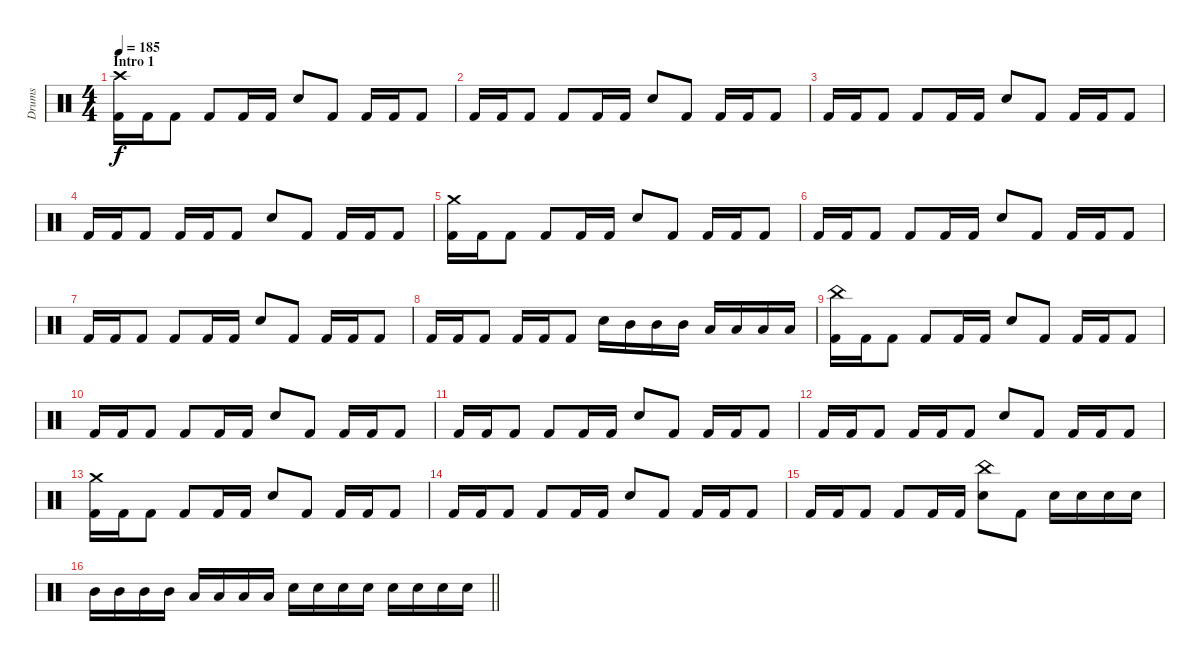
\track ("Drums" "Drums") {instrument percussion}
\staff {score}
\articulation defaults
\ts (4 4)
\section ("" "Intro 1")
\tempo 185
\clef neutral
\ks c
("Crash high (hit)" "Kick (hit) 2").16{dy f} "Kick (hit) 2".16 "Kick (hit) 2".8 "Kick (hit) 2".8 "Kick (hit) 2".16 "Kick (hit) 2".16 "Electric Snare (hit)".8 "Kick (hit) 2".8 "Kick (hit) 2".16 "Kick (hit) 2".16 "Kick (hit) 2".8 |
"Kick (hit) 2".16 "Kick (hit) 2".16 "Kick (hit) 2".8 "Kick (hit) 2".8 "Kick (hit) 2".16 "Kick (hit) 2".16 "Electric Snare (hit)".8 "Kick (hit) 2".8 "Kick (hit) 2".16 "Kick (hit) 2".16 "Kick (hit) 2".8 |
"Kick (hit) 2".16 "Kick (hit) 2".16 "Kick (hit) 2".8 "Kick (hit) 2".8 "Kick (hit) 2".16 "Kick (hit) 2".16 "Electric Snare (hit)".8 "Kick (hit) 2".8 "Kick (hit) 2".16 "Kick (hit) 2".16 "Kick (hit) 2".8 |
"Kick (hit) 2".16 "Kick (hit) 2".16 "Kick (hit) 2".8 "Kick (hit) 2".16 "Kick (hit) 2".16 "Kick (hit) 2".8 "Electric Snare (hit)".8 "Kick (hit) 2".8 "Kick (hit) 2".16 "Kick (hit) 2".16 "Kick (hit) 2".8 |
("Crash medium (hit)" "Kick (hit) 2").16 "Kick (hit) 2".16 "Kick (hit) 2".8 "Kick (hit) 2".8 "Kick (hit) 2".16 "Kick (hit) 2".16 "Electric Snare (hit)".8 "Kick (hit) 2".8 "Kick (hit) 2".16 "Kick (hit) 2".16 "Kick (hit) 2".8 |
"Kick (hit) 2".16 "Kick (hit) 2".16 "Kick (hit) 2".8 "Kick (hit) 2".8 "Kick (hit) 2".16 "Kick (hit) 2".16 "Electric Snare (hit)".8 "Kick (hit) 2".8 "Kick (hit) 2".16 "Kick (hit) 2".16 "Kick (hit) 2".8 |
"Kick (hit) 2".16 "Kick (hit) 2".16 "Kick (hit) 2".8 "Kick (hit) 2".8 "Kick (hit) 2".16 "Kick (hit) 2".16 "Electric Snare (hit)".8 "Kick (hit) 2".8 "Kick (hit) 2".16 "Kick (hit) 2".16 "Kick (hit) 2".8 |
"Kick (hit) 2".16 "Kick (hit) 2".16 "Kick (hit) 2".8 "Kick (hit) 2".16 "Kick (hit) 2".16 "Kick (hit) 2".8 "Electric Snare (hit)".16 "Mid Tom (hit)".16 "Mid Tom (hit)".16 "Mid Tom (hit)".16 "Low Tom (hit)".16 "Low Tom (hit)".16 "Low Tom (hit)".16 "Low Tom (hit)".16 |
("China (hit)" "Kick (hit) 2").16 "Kick (hit) 2".16 "Kick (hit) 2".8 "Kick (hit) 2".8 "Kick (hit) 2".16 "Kick (hit) 2".16 "Electric Snare (hit)".8 "Kick (hit) 2".8 "Kick (hit) 2".16 "Kick (hit) 2".16 "Kick (hit) 2".8 |
"Kick (hit) 2".16 "Kick (hit) 2".16 "Kick (hit) 2".8 "Kick (hit) 2".8 "Kick (hit) 2".16 "Kick (hit) 2".16 "Electric Snare (hit)".8 "Kick (hit) 2".8 "Kick (hit) 2".16 "Kick (hit) 2".16 "Kick (hit) 2".8 |
"Kick (hit) 2".16 "Kick (hit) 2".16 "Kick (hit) 2".8 "Kick (hit) 2".8 "Kick (hit) 2".16 "Kick (hit) 2".16 "Electric Snare (hit)".8 "Kick (hit) 2".8 "Kick (hit) 2".16 "Kick (hit) 2".16 "Kick (hit) 2".8 |
"Kick (hit) 2".16 "Kick (hit) 2".16 "Kick (hit) 2".8 "Kick (hit) 2".16 "Kick (hit) 2".16 "Kick (hit) 2".8 "Electric Snare (hit)".8 "Kick (hit) 2".8 "Kick (hit) 2".16 "Kick (hit) 2".16 "Kick (hit) 2".8 |
("Crash medium (hit)" "Kick (hit) 2").16 "Kick (hit) 2".16 "Kick (hit) 2".8 "Kick (hit) 2".8 "Kick (hit) 2".16 "Kick (hit) 2".16 "Electric Snare (hit)".8 "Kick (hit) 2".8 "Kick (hit) 2".16 "Kick (hit) 2".16 "Kick (hit) 2".8 |
"Kick (hit) 2".16 "Kick (hit) 2".16 "Kick (hit) 2".8 "Kick (hit) 2".8 "Kick (hit) 2".16 "Kick (hit) 2".16 "Electric Snare (hit)".8 "Kick (hit) 2".8 "Kick (hit) 2".16 "Kick (hit) 2".16 "Kick (hit) 2".8 |
"Kick (hit) 2".16 "Kick (hit) 2".16 "Kick (hit) 2".8 "Kick (hit) 2".8 "Kick (hit) 2".16 "Kick (hit) 2".16 ("China (hit)" "Electric Snare (hit)").8 "Kick (hit) 2".8 "Electric Snare (hit)".16 "Electric Snare (hit)".16 "Electric Snare (hit)".16 "Electric Snare (hit)".16 |
\barLineRight lightlight "Mid Tom (hit)".16 "Mid Tom (hit)".16 "Mid Tom (hit)".16 "Mid Tom (hit)".16 "Low Tom (hit)".16 "Low Tom (hit)".16 "Low Tom (hit)".16 "Low Tom (hit)".16 "Electric Snare (hit)".16 "Electric Snare (hit)".16 "Electric Snare (hit)".16 "Electric Snare (hit)".16 "Electric Snare (hit)".16 "Electric Snare (hit)".16 "Electric Snare (hit)".16 "Electric Snare (hit)".16
